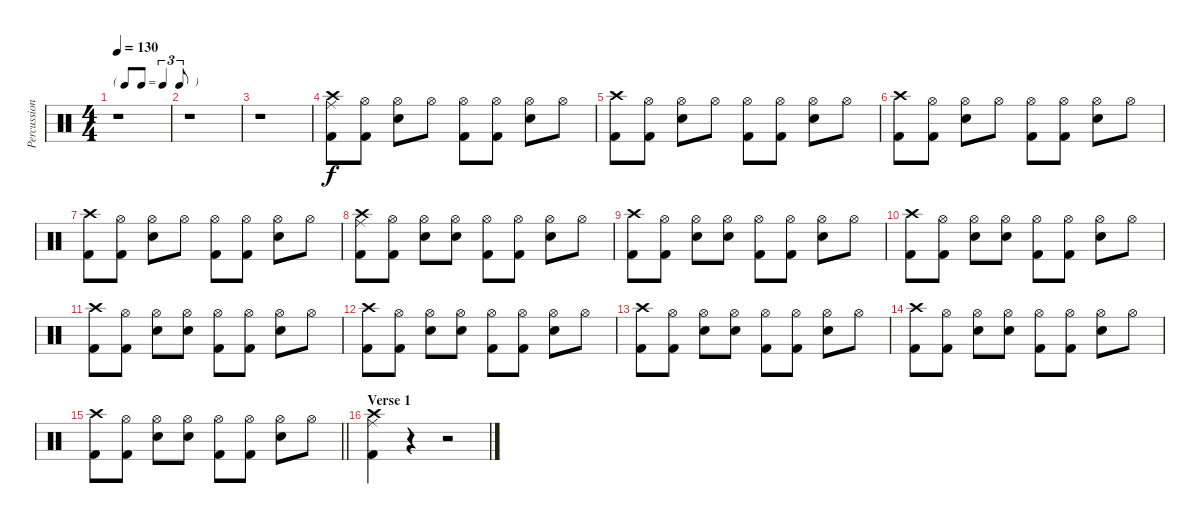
\track ("Percussions" "Percussion") {instrument percussion}
\staff {score}
\articulation defaults
\ts (4 4)
\tf triplet8th
\tempo 130
\clef neutral
\ks c
r.1{dy f} |
r.1 |
r.1 |
("Crash high (hit)" "Kick (hit) 2" "Ride (middle)").8 ("Hi-Hat (open)" "Kick (hit) 2").8 ("Electric Snare (hit)" "Hi-Hat (open)").8 "Hi-Hat (open)".8 ("Hi-Hat (open)" "Kick (hit) 2").8 ("Hi-Hat (open)" "Kick (hit) 2").8 ("Hi-Hat (open)" "Electric Snare (hit)").8 "Hi-Hat (open)".8 |
("Crash high (hit)" "Kick (hit) 2").8 ("Hi-Hat (open)" "Kick (hit) 2").8 ("Electric Snare (hit)" "Hi-Hat (open)").8 "Hi-Hat (open)".8 ("Hi-Hat (open)" "Kick (hit) 2").8 ("Hi-Hat (open)" "Kick (hit) 2").8 ("Hi-Hat (open)" "Electric Snare (hit)").8 "Hi-Hat (open)".8 |
("Crash high (hit)" "Kick (hit) 2").8 ("Hi-Hat (open)" "Kick (hit) 2").8 ("Electric Snare (hit)" "Hi-Hat (open)").8 "Hi-Hat (open)".8 ("Hi-Hat (open)" "Kick (hit) 2").8 ("Hi-Hat (open)" "Kick (hit) 2").8 ("Hi-Hat (open)" "Electric Snare (hit)").8 "Hi-Hat (open)".8 |
("Crash high (hit)" "Kick (hit) 2").8 ("Hi-Hat (open)" "Kick (hit) 2").8 ("Electric Snare (hit)" "Hi-Hat (open)").8 "Hi-Hat (open)".8 ("Hi-Hat (open)" "Kick (hit) 2").8 ("Hi-Hat (open)" "Kick (hit) 2").8 ("Hi-Hat (open)" "Electric Snare (hit)").8 "Hi-Hat (open)".8 |
("Crash high (hit)" "Ride (middle)" "Kick (hit) 2").8 ("Hi-Hat (open)" "Kick (hit) 2").8 ("Hi-Hat (open)" "Electric Snare (hit)").8 ("Hi-Hat (open)" "Electric Snare (hit)").8 ("Hi-Hat (open)" "Kick (hit) 2").8 ("Hi-Hat (open)" "Kick (hit) 2").8 ("Hi-Hat (open)" "Electric Snare (hit)").8 "Hi-Hat (open)".8 |
("Crash high (hit)" "Kick (hit) 2").8 ("Hi-Hat (open)" "Kick (hit) 2").8 ("Hi-Hat (open)" "Electric Snare (hit)").8 ("Hi-Hat (open)" "Electric Snare (hit)").8 ("Hi-Hat (open)" "Kick (hit) 2").8 ("Hi-Hat (open)" "Kick (hit) 2").8 ("Hi-Hat (open)" "Electric Snare (hit)").8 "Hi-Hat (open)".8 |
("Crash high (hit)" "Kick (hit) 2").8 ("Hi-Hat (open)" "Kick (hit) 2").8 ("Hi-Hat (open)" "Electric Snare (hit)").8 ("Hi-Hat (open)" "Electric Snare (hit)").8 ("Hi-Hat (open)" "Kick (hit) 2").8 ("Hi-Hat (open)" "Kick (hit) 2").8 ("Hi-Hat (open)" "Electric Snare (hit)").8 "Hi-Hat (open)".8 |
("Crash high (hit)" "Kick (hit) 2").8 ("Hi-Hat (open)" "Kick (hit) 2").8 ("Hi-Hat (open)" "Electric Snare (hit)").8 ("Hi-Hat (open)" "Electric Snare (hit)").8 ("Hi-Hat (open)" "Kick (hit) 2").8 ("Hi-Hat (open)" "Kick (hit) 2").8 ("Hi-Hat (open)" "Electric Snare (hit)").8 "Hi-Hat (open)".8 |
("Crash high (hit)" "Kick (hit) 2").8 ("Hi-Hat (open)" "Kick (hit) 2").8 ("Hi-Hat (open)" "Electric Snare (hit)").8 ("Hi-Hat (open)" "Electric Snare (hit)").8 ("Hi-Hat (open)" "Kick (hit) 2").8 ("Hi-Hat (open)" "Kick (hit) 2").8 ("Hi-Hat (open)" "Electric Snare (hit)").8 "Hi-Hat (open)".8 |
("Crash high (hit)" "Kick (hit) 2").8 ("Hi-Hat (open)" "Kick (hit) 2").8 ("Hi-Hat (open)" "Electric Snare (hit)").8 ("Hi-Hat (open)" "Electric Snare (hit)").8 ("Hi-Hat (open)" "Kick (hit) 2").8 ("Hi-Hat (open)" "Kick (hit) 2").8 ("Hi-Hat (open)" "Electric Snare (hit)").8 "Hi-Hat (open)".8 |
("Crash high (hit)" "Kick (hit) 2").8 ("Hi-Hat (open)" "Kick (hit) 2").8 ("Hi-Hat (open)" "Electric Snare (hit)").8 ("Hi-Hat (open)" "Electric Snare (hit)").8 ("Hi-Hat (open)" "Kick (hit) 2").8 ("Hi-Hat (open)" "Kick (hit) 2").8 ("Hi-Hat (open)" "Electric Snare (hit)").8 "Hi-Hat (open)".8 |
\barLineRight lightlight
("Crash high (hit)" "Kick (hit) 2").8 ("Hi-Hat (open)" "Kick (hit) 2").8 ("Hi-Hat (open)" "Electric Snare (hit)").8 ("Hi-Hat (open)" "Electric Snare (hit)").8 ("Hi-Hat (open)" "Kick (hit) 2").8 ("Hi-Hat (open)" "Kick (hit) 2").8 ("Hi-Hat (open)" "Electric Snare (hit)").8 "Hi-Hat (open)".8 |
\section ("" "Verse 1")
("Ride (middle)" "Crash high (hit)" "Kick (hit) 2").4 r.4 r.2
